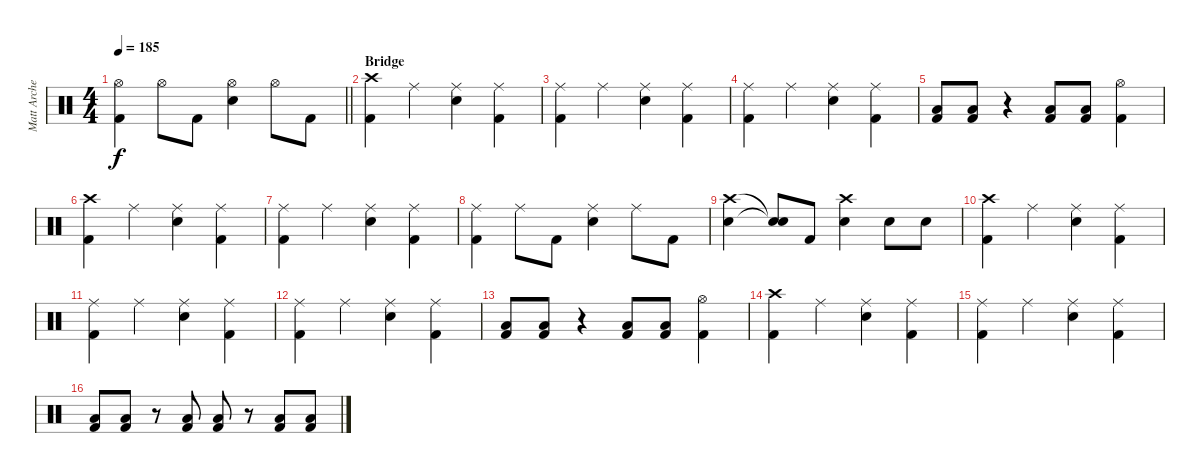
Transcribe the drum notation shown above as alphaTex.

\track ("Matt Archer" "Matt Arche") {instrument percussion}
\staff {score}
\articulation defaults
\ts (4 4)
\tempo 185
\clef neutral
\barLineRight lightlight
\ks c
("Hi-Hat (open)" "Kick (hit) 2").4{dy f} "Hi-Hat (open)".8 "Kick (hit) 2".8 ("Hi-Hat (open)" "Snare (hit) 2").4 "Hi-Hat (open)".8 "Kick (hit) 2".8 |
\section ("" "Bridge")
("Crash high (hit)" "Kick (hit) 2").4 "Ride (middle)".4 ("Ride (middle)" "Snare (hit) 2").4 ("Ride (middle)" "Kick (hit) 2").4 |
("Ride (middle)" "Kick (hit) 2").4 "Ride (middle)".4 ("Ride (middle)" "Snare (hit) 2").4 ("Ride (middle)" "Kick (hit) 2").4 |
("Ride (middle)" "Kick (hit) 2").4 "Ride (middle)".4 ("Ride (middle)" "Snare (hit) 2").4 ("Ride (middle)" "Kick (hit) 2").4 |
("Low Tom (hit)" "Kick (hit) 2").8 ("Low Tom (hit)" "Kick (hit) 2").8 r.4 ("Low Tom (hit)" "Kick (hit) 2").8 ("Low Tom (hit)" "Kick (hit) 2").8 ("Hi-Hat (open)" "Kick (hit) 2").4 |
("Crash high (hit)" "Kick (hit) 2").4 "Ride (middle)".4 ("Ride (middle)" "Snare (hit) 2").4 ("Ride (middle)" "Kick (hit) 2").4 |
("Ride (middle)" "Kick (hit) 2").4 "Ride (middle)".4 ("Ride (middle)" "Snare (hit) 2").4 ("Ride (middle)" "Kick (hit) 2").4 |
("Ride (middle)" "Kick (hit) 2").4 "Ride (middle)".8 "Kick (hit) 2".8 ("Ride (middle)" "Snare (hit) 2").4 "Ride (middle)".8 "Kick (hit) 2".8 |
("Crash high (hit)" "Snare (hit) 2").4 ("Snare (hit)"{t} "Snare (hit)"{t}).8 "Kick (hit) 2".8 ("Crash high (hit)" "Snare (hit) 2").4 "Snare (hit) 2".8 "Snare (hit) 2".8 |
("Crash high (hit)" "Kick (hit) 2").4 "Ride (middle)".4 ("Ride (middle)" "Snare (hit) 2").4 ("Ride (middle)" "Kick (hit) 2").4 |
("Ride (middle)" "Kick (hit) 2").4 "Ride (middle)".4 ("Ride (middle)" "Snare (hit) 2").4 ("Ride (middle)" "Kick (hit) 2").4 |
("Ride (middle)" "Kick (hit) 2").4 "Ride (middle)".4 ("Ride (middle)" "Snare (hit) 2").4 ("Ride (middle)" "Kick (hit) 2").4 |
("Low Tom (hit)" "Kick (hit) 2").8 ("Low Tom (hit)" "Kick (hit) 2").8 r.4 ("Low Tom (hit)" "Kick (hit) 2").8 ("Low Tom (hit)" "Kick (hit) 2").8 ("Hi-Hat (open)" "Kick (hit) 2").4 |
("Crash high (hit)" "Kick (hit) 2").4 "Ride (middle)".4 ("Ride (middle)" "Snare (hit) 2").4 ("Ride (middle)" "Kick (hit) 2").4 |
("Ride (middle)" "Kick (hit) 2").4 "Ride (middle)".4 ("Ride (middle)" "Snare (hit) 2").4 ("Ride (middle)" "Kick (hit) 2").4 |
("Low Tom (hit)" "Kick (hit) 2").8 ("Low Tom (hit)" "Kick (hit) 2").8 r.8 ("Low Tom (hit)" "Kick (hit) 2").8 ("Low Tom (hit)" "Kick (hit) 2").8 r.8 ("Low Tom (hit)" "Kick (hit) 2").8 ("Low Tom (hit)" "Kick (hit) 2").8
